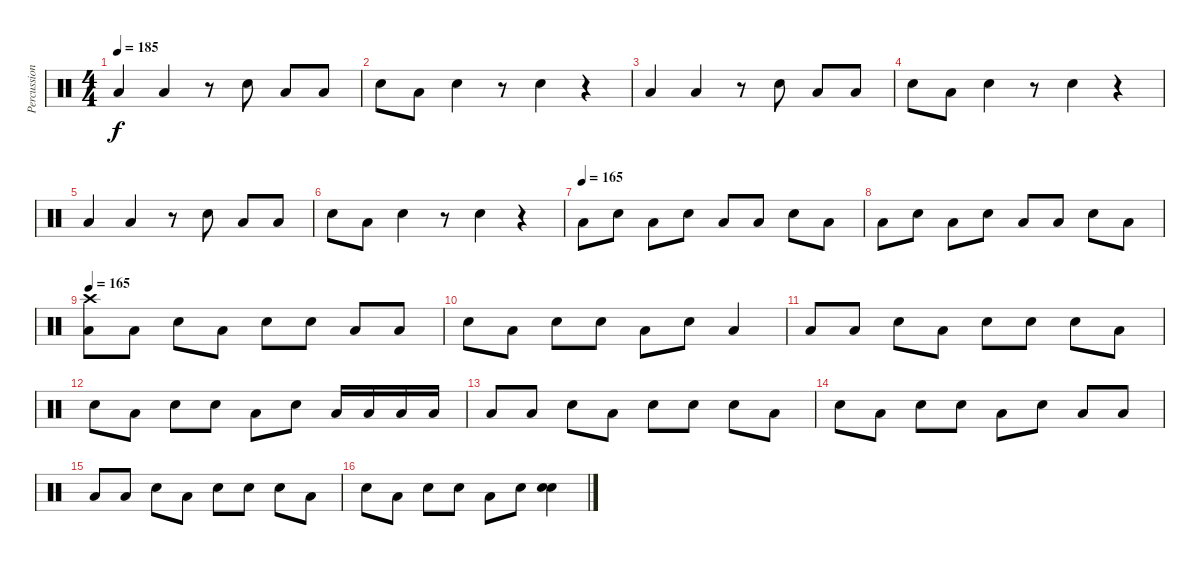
\track ("Percussion" "Percussion") {instrument percussion}
\staff {score}
\articulation defaults
\ts (4 4)
\tempo 185
\clef neutral
\ks c "Low Tom (hit)".4{dy f} "Low Tom (hit)".4
r.8 "Electric Snare (hit)".8 "Low Tom (hit)".8 "Low Tom (hit)".8 |
"Electric Snare (hit)".8 "Low Tom (hit)".8 "Electric Snare (hit)".4 r.8 "Electric Snare (hit)".4 r.4 |
"Low Tom (hit)".4 "Low Tom (hit)".4 r.8 "Electric Snare (hit)".8 "Low Tom (hit)".8 "Low Tom (hit)".8 |
"Electric Snare (hit)".8 "Low Tom (hit)".8 "Electric Snare (hit)".4 r.8 "Electric Snare (hit)".4 r.4 |
"Low Tom (hit)".4 "Low Tom (hit)".4 r.8 "Electric Snare (hit)".8 "Low Tom (hit)".8 "Low Tom (hit)".8 |
"Electric Snare (hit)".8 "Low Tom (hit)".8 "Electric Snare (hit)".4 r.8 "Electric Snare (hit)".4 r.4 |
\tempo (165)
"Low Tom (hit)".8 "Electric Snare (hit)".8 "Low Tom (hit)".8 "Electric Snare (hit)".8 "Low Tom (hit)".8 "Low Tom (hit)".8 "Electric Snare (hit)".8 "Low Tom (hit)".8 |
"Low Tom (hit)".8 "Electric Snare (hit)".8 "Low Tom (hit)".8 "Electric Snare (hit)".8 "Low Tom (hit)".8 "Low Tom (hit)".8 "Electric Snare (hit)".8 "Low Tom (hit)".8 |
\tempo 165
("Low Tom (hit)" "Crash high (hit)").8 "Low Tom (hit)".8 "Electric Snare (hit)".8 "Low Tom (hit)".8 "Electric Snare (hit)".8 "Electric Snare (hit)".8 "Low Tom (hit)".8 "Low Tom (hit)".8 |
"Electric Snare (hit)".8 "Low Tom (hit)".8 "Electric Snare (hit)".8 "Electric Snare (hit)".8 "Low Tom (hit)".8 "Electric Snare (hit)".8 "Low Tom (hit)".4 |
"Low Tom (hit)".8 "Low Tom (hit)".8 "Electric Snare (hit)".8 "Low Tom (hit)".8 "Electric Snare (hit)".8 "Electric Snare (hit)".8 "Electric Snare (hit)".8 "Low Tom (hit)".8 |
"Electric Snare (hit)".8 "Low Tom (hit)".8 "Electric Snare (hit)".8 "Electric Snare (hit)".8 "Low Tom (hit)".8 "Electric Snare (hit)".8 "Low Tom (hit)".16 "Low Tom (hit)".16 "Low Tom (hit)".16 "Low Tom (hit)".16 |
"Low Tom (hit)".8 "Low Tom (hit)".8 "Electric Snare (hit)".8 "Low Tom (hit)".8 "Electric Snare (hit)".8 "Electric Snare (hit)".8 "Electric Snare (hit)".8 "Low Tom (hit)".8 |
"Electric Snare (hit)".8 "Low Tom (hit)".8 "Electric Snare (hit)".8 "Electric Snare (hit)".8 "Low Tom (hit)".8 "Electric Snare (hit)".8 "Low Tom (hit)".8 "Low Tom (hit)".8 |
"Low Tom (hit)".8 "Low Tom (hit)".8 "Electric Snare (hit)".8 "Low Tom (hit)".8 "Electric Snare (hit)".8 "Electric Snare (hit)".8 "Electric Snare (hit)".8 "Low Tom (hit)".8 |
"Electric Snare (hit)".8 "Low Tom (hit)".8 "Electric Snare (hit)".8 "Electric Snare (hit)".8 "Low Tom (hit)".8 "Electric Snare (hit)".8 ("Electric Snare (hit)" "Electric Snare (hit)").4
